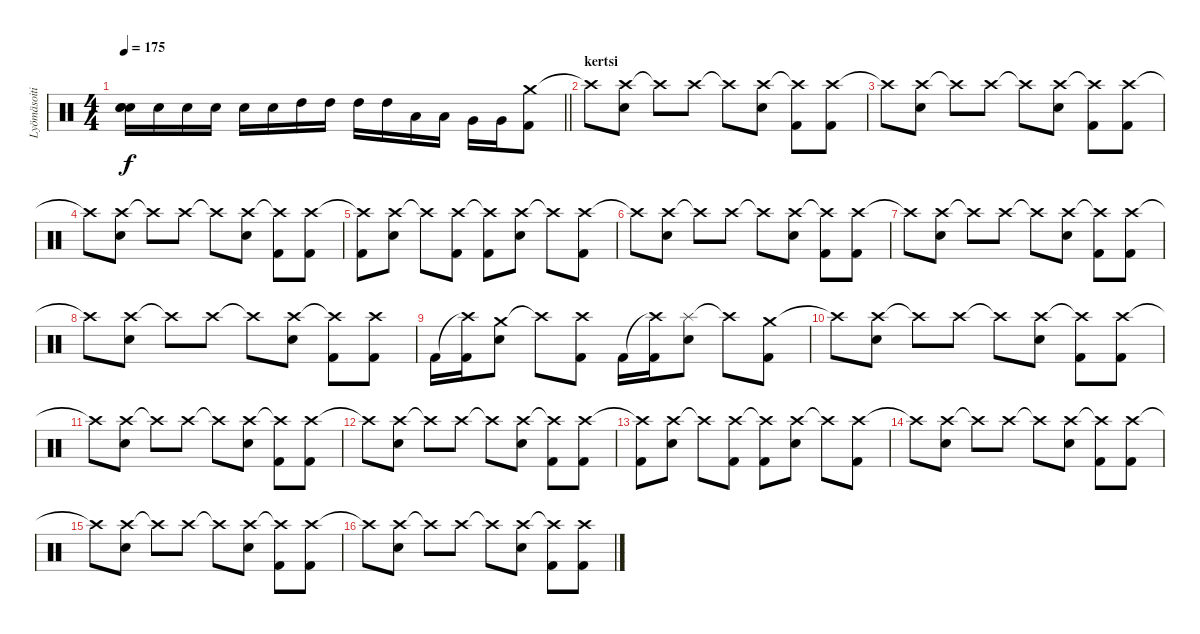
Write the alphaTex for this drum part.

\track ("Lyömäsoitin" "Lyömäsoiti") {instrument percussion}
\staff {score}
\articulation defaults
\ts (4 4)
\tempo 175
\clef neutral
\barLineRight lightlight
\ks c
("Snare (hit)"{t} "Electric Snare (hit)" "Snare (hit)").16{dy f} "Electric Snare (hit)".16 "Electric Snare (hit)".16 "Electric Snare (hit)".16 "Electric Snare (hit)".16 "Electric Snare (hit)".16 "High Tom (hit)".16 "High Tom (hit)".16 "High Tom (hit)".16 "High Tom (hit)".16 "Low Tom (hit)".16 "Low Tom (hit)".16 "Very Low Tom (hit)".16 "Very Low Tom (hit)".16 ("Crash medium (hit)" "Kick (hit) 2").8 |
\section ("" "kertsi")
"Crash high (hit)"{t}.8 ("Crash high (hit)" "Electric Snare (hit)").8 "Crash high (hit)"{t}.8 "Crash high (hit)".8 "Crash high (hit)"{t}.8 ("Crash high (hit)" "Electric Snare (hit)").8 ("Crash high (hit)"{t} "Kick (hit) 2").8 ("Crash high (hit)" "Kick (hit) 2").8 |
"Crash high (hit)"{t}.8 ("Crash high (hit)" "Electric Snare (hit)").8 "Crash high (hit)"{t}.8 "Crash high (hit)".8 "Crash high (hit)"{t}.8 ("Crash high (hit)" "Electric Snare (hit)").8 ("Crash high (hit)"{t} "Kick (hit) 2").8 ("Crash high (hit)" "Kick (hit) 2").8 |
"Crash high (hit)"{t}.8 ("Crash high (hit)" "Electric Snare (hit)").8 "Crash high (hit)"{t}.8 "Crash high (hit)".8 "Crash high (hit)"{t}.8 ("Crash high (hit)" "Electric Snare (hit)").8 ("Crash high (hit)"{t} "Kick (hit) 2").8 ("Crash high (hit)" "Kick (hit) 2").8 |
("Crash high (hit)"{t} "Kick (hit) 2").8 ("Crash high (hit)" "Electric Snare (hit)").8 "Crash high (hit)"{t}.8 ("Crash high (hit)" "Kick (hit) 2").8 ("Crash high (hit)"{t} "Kick (hit) 2").8 ("Crash high (hit)" "Electric Snare (hit)").8 "Crash high (hit)"{t}.8 ("Crash high (hit)" "Kick (hit) 2").8 |
"Crash high (hit)"{t}.8 ("Crash high (hit)" "Electric Snare (hit)").8 "Crash high (hit)"{t}.8 "Crash high (hit)".8 "Crash high (hit)"{t}.8 ("Crash high (hit)" "Electric Snare (hit)").8 ("Crash high (hit)"{t} "Kick (hit) 2").8 ("Crash high (hit)" "Kick (hit) 2").8 |
"Crash high (hit)"{t}.8 ("Crash high (hit)" "Electric Snare (hit)").8 "Crash high (hit)"{t}.8 "Crash high (hit)".8 "Crash high (hit)"{t}.8 ("Crash high (hit)" "Electric Snare (hit)").8 ("Crash high (hit)"{t} "Kick (hit) 2").8 ("Crash high (hit)" "Kick (hit) 2").8 |
"Crash high (hit)"{t}.8 ("Crash high (hit)" "Electric Snare (hit)").8 "Crash high (hit)"{t}.8 "Crash high (hit)".8 "Crash high (hit)"{t}.8 ("Crash high (hit)" "Electric Snare (hit)").8 ("Crash high (hit)"{t} "Kick (hit) 2").8 ("Crash high (hit)" "Kick (hit) 2").8 |
"Kick (hit) 2".16 ("Crash high (hit)"{t} "Kick (hit) 2").16 ("Crash medium (hit)" "Electric Snare (hit)").8 "Crash high (hit)"{t}.8 ("Crash high (hit)" "Kick (hit) 2").8 "Kick (hit) 2".16 ("Crash high (hit)"{t} "Kick (hit) 2").16 ("Splash (hit)" "Electric Snare (hit)").8 "Crash high (hit)"{t}.8 ("Crash medium (hit)" "Kick (hit) 2").8 |
"Crash high (hit)"{t}.8 ("Crash high (hit)" "Electric Snare (hit)").8 "Crash high (hit)"{t}.8 "Crash high (hit)".8 "Crash high (hit)"{t}.8 ("Crash high (hit)" "Electric Snare (hit)").8 ("Crash high (hit)"{t} "Kick (hit) 2").8 ("Crash high (hit)" "Kick (hit) 2").8 |
"Crash high (hit)"{t}.8 ("Crash high (hit)" "Electric Snare (hit)").8 "Crash high (hit)"{t}.8 "Crash high (hit)".8 "Crash high (hit)"{t}.8 ("Crash high (hit)" "Electric Snare (hit)").8 ("Crash high (hit)"{t} "Kick (hit) 2").8 ("Crash high (hit)" "Kick (hit) 2").8 |
"Crash high (hit)"{t}.8 ("Crash high (hit)" "Electric Snare (hit)").8 "Crash high (hit)"{t}.8 "Crash high (hit)".8 "Crash high (hit)"{t}.8 ("Crash high (hit)" "Electric Snare (hit)").8 ("Crash high (hit)"{t} "Kick (hit) 2").8 ("Crash high (hit)" "Kick (hit) 2").8 |
("Crash high (hit)"{t} "Kick (hit) 2").8 ("Crash high (hit)" "Electric Snare (hit)").8 "Crash high (hit)"{t}.8 ("Crash high (hit)" "Kick (hit) 2").8 ("Crash high (hit)"{t} "Kick (hit) 2").8 ("Crash high (hit)" "Electric Snare (hit)").8 "Crash high (hit)"{t}.8 ("Crash high (hit)" "Kick (hit) 2").8 |
"Crash high (hit)"{t}.8 ("Crash high (hit)" "Electric Snare (hit)").8 "Crash high (hit)"{t}.8 "Crash high (hit)".8 "Crash high (hit)"{t}.8 ("Crash high (hit)" "Electric Snare (hit)").8 ("Crash high (hit)"{t} "Kick (hit) 2").8 ("Crash high (hit)" "Kick (hit) 2").8 |
"Crash high (hit)"{t}.8 ("Crash high (hit)" "Electric Snare (hit)").8 "Crash high (hit)"{t}.8 "Crash high (hit)".8 "Crash high (hit)"{t}.8 ("Crash high (hit)" "Electric Snare (hit)").8 ("Crash high (hit)"{t} "Kick (hit) 2").8 ("Crash high (hit)" "Kick (hit) 2").8 |
"Crash high (hit)"{t}.8 ("Crash high (hit)" "Electric Snare (hit)").8 "Crash high (hit)"{t}.8 "Crash high (hit)".8 "Crash high (hit)"{t}.8 ("Crash high (hit)" "Electric Snare (hit)").8 ("Crash high (hit)"{t} "Kick (hit) 2").8 ("Crash high (hit)" "Kick (hit) 2").8
